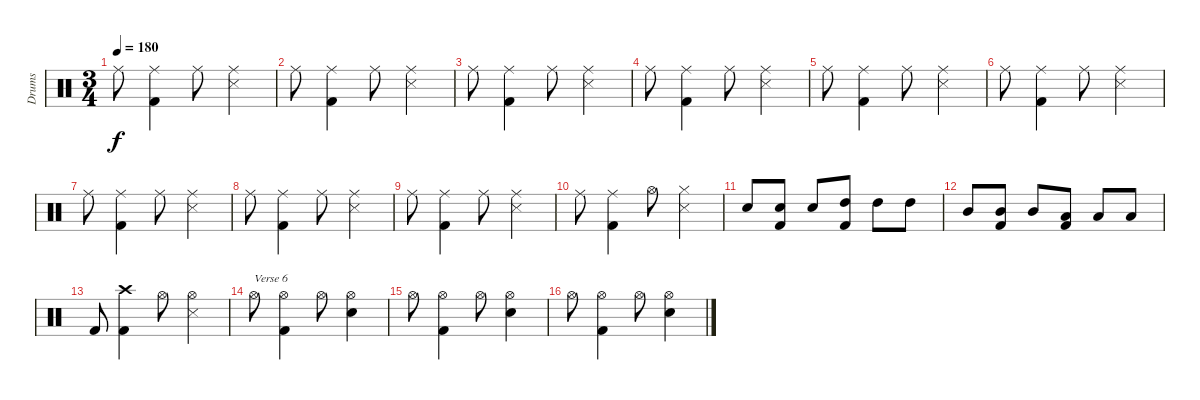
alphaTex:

\track ("Drums" "Drums") {instrument percussion}
\staff {score}
\articulation defaults
\ts (3 4)
\tempo 180
\clef neutral
\ks c "Ride (middle)".8{dy f}
("Ride (middle)" "Kick (hit) 2").4 "Ride (middle)".8 ("Ride (middle)" "Snare (side stick) 3").4 |
"Ride (middle)".8 ("Ride (middle)" "Kick (hit) 2").4 "Ride (middle)".8 ("Ride (middle)" "Snare (side stick) 3").4 |
"Ride (middle)".8 ("Ride (middle)" "Kick (hit) 2").4 "Ride (middle)".8 ("Ride (middle)" "Snare (side stick) 3").4 |
"Ride (middle)".8 ("Ride (middle)" "Kick (hit) 2").4 "Ride (middle)".8 ("Ride (middle)" "Snare (side stick) 3").4 |
"Ride (middle)".8 ("Ride (middle)" "Kick (hit) 2").4 "Ride (middle)".8 ("Ride (middle)" "Snare (side stick) 3").4 |
"Ride (middle)".8 ("Ride (middle)" "Kick (hit) 2").4 "Ride (middle)".8 ("Ride (middle)" "Snare (side stick) 3").4 |
"Ride (middle)".8 ("Ride (middle)" "Kick (hit) 2").4 "Ride (middle)".8 ("Ride (middle)" "Snare (side stick) 3").4 |
"Ride (middle)".8 ("Ride (middle)" "Kick (hit) 2").4 "Ride (middle)".8 ("Ride (middle)" "Snare (side stick) 3").4 |
"Ride (middle)".8 ("Ride (middle)" "Kick (hit) 2").4 "Ride (middle)".8 ("Ride (middle)" "Snare (side stick) 3").4 |
"Ride (middle)".8 ("Ride (middle)" "Kick (hit) 2").4 "Hi-Hat (open)".8 ("Hi-Hat (closed)" "Snare (side stick) 3").4 |
"Snare (hit) 2".8 ("Snare (hit) 2" "Kick (hit) 2").8 "Snare (hit) 2".8 ("High Tom (hit)" "Kick (hit) 2").8 "High Tom (hit)".8 "High Tom (hit)".8 |
"Mid Tom (hit)".8 ("Mid Tom (hit)" "Kick (hit) 2").8 "Mid Tom (hit)".8 ("Low Tom (hit)" "Kick (hit) 2").8 "Low Tom (hit)".8 "Low Tom (hit)".8 |
"Kick (hit) 2".8 ("Crash high (hit)" "Kick (hit) 2").4 "Hi-Hat (open)".8 ("Hi-Hat (open)" "Snare (side stick) 3").4 |
"Hi-Hat (open)".8{txt "Verse 6"} ("Hi-Hat (open)" "Kick (hit) 2").4 "Hi-Hat (open)".8 ("Hi-Hat (open)" "Snare (hit) 2").4 |
"Hi-Hat (open)".8 ("Hi-Hat (open)" "Kick (hit) 2").4 "Hi-Hat (open)".8 ("Hi-Hat (open)" "Snare (hit) 2").4 |
"Hi-Hat (open)".8 ("Hi-Hat (open)" "Kick (hit) 2").4 "Hi-Hat (open)".8 ("Hi-Hat (open)" "Snare (hit) 2").4
